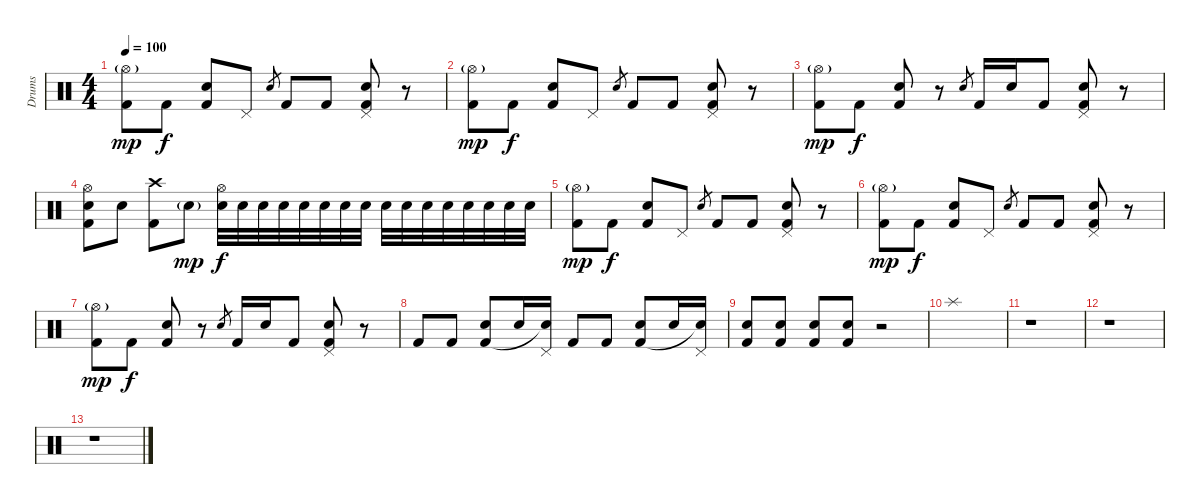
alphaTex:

\track ("Drums" "Drums") {instrument percussion}
\staff {score}
\articulation defaults
\ts (4 4)
\tempo 100
\clef neutral
\ks c
("Hi-Hat (open)"{g} "Kick (hit) 2").8{dy mp} "Kick (hit) 2".8{dy f} ("Snare (hit) 2" "Kick (hit) 2").8 "Pedal Hi-Hat (hit)".8 "Snare (hit) 2".8{gr} "Kick (hit) 2".8 "Kick (hit) 2".8 ("Pedal Hi-Hat (hit)" "Snare (hit) 2" "Kick (hit) 2").8 r.8 |
("Hi-Hat (open)"{g} "Kick (hit) 2").8{dy mp} "Kick (hit) 2".8{dy f} ("Snare (hit) 2" "Kick (hit) 2").8 "Pedal Hi-Hat (hit)".8 "Snare (hit) 2".8{gr} "Kick (hit) 2".8 "Kick (hit) 2".8 ("Pedal Hi-Hat (hit)" "Snare (hit) 2" "Kick (hit) 2").8 r.8 |
("Hi-Hat (open)"{g} "Kick (hit) 2").8{dy mp} "Kick (hit) 2".8{dy f} ("Snare (hit) 2" "Kick (hit) 2").8 r.8 "Snare (hit) 2".8{gr} "Kick (hit) 2".16 "Snare (hit) 2".16 "Kick (hit) 2".8 ("Pedal Hi-Hat (hit)" "Snare (hit) 2" "Kick (hit) 2").8 r.8 |
("Hi-Hat (open)" "Snare (hit) 2" "Kick (hit) 2").8 "Snare (hit) 2".8 ("Crash high (hit)" "Kick (hit) 2").8 "Snare (hit) 2"{g}.8{dy mp} ("Hi-Hat (open)" "Snare (hit) 2").32{dy f} "Snare (hit) 2".32 "Snare (hit) 2".32 "Snare (hit) 2".32 "Snare (hit) 2".32 "Snare (hit) 2".32 "Snare (hit) 2".32 "Snare (hit) 2".32 "Snare (hit) 2".32 "Snare (hit) 2".32 "Snare (hit) 2".32 "Snare (hit) 2".32 "Snare (hit) 2".32 "Snare (hit) 2".32 "Snare (hit) 2".32 "Snare (hit) 2".32 |
("Hi-Hat (open)"{g} "Kick (hit) 2").8{dy mp} "Kick (hit) 2".8{dy f} ("Snare (hit) 2" "Kick (hit) 2").8 "Pedal Hi-Hat (hit)".8 "Snare (hit) 2".8{gr} "Kick (hit) 2".8 "Kick (hit) 2".8 ("Pedal Hi-Hat (hit)" "Snare (hit) 2" "Kick (hit) 2").8 r.8 |
("Hi-Hat (open)"{g} "Kick (hit) 2").8{dy mp} "Kick (hit) 2".8{dy f} ("Snare (hit) 2" "Kick (hit) 2").8 "Pedal Hi-Hat (hit)".8 "Snare (hit) 2".8{gr} "Kick (hit) 2".8 "Kick (hit) 2".8 ("Pedal Hi-Hat (hit)" "Snare (hit) 2" "Kick (hit) 2").8 r.8 |
("Hi-Hat (open)"{g} "Kick (hit) 2").8{dy mp} "Kick (hit) 2".8{dy f} ("Snare (hit) 2" "Kick (hit) 2").8 r.8 "Snare (hit) 2".8{gr} "Kick (hit) 2".16 "Snare (hit) 2".16 "Kick (hit) 2".8 ("Pedal Hi-Hat (hit)" "Snare (hit) 2" "Kick (hit) 2").8 r.8 |
"Kick (hit) 2".8 "Kick (hit) 2".8 ("Snare (hit) 2" "Kick (hit) 2").8 "Snare (hit) 2".16 ("Pedal Hi-Hat (hit)" "Snare (hit)"{t}).16 "Kick (hit) 2".8 "Kick (hit) 2".8 ("Snare (hit) 2" "Kick (hit) 2").8 "Snare (hit) 2".16 ("Pedal Hi-Hat (hit)" "Snare (hit)"{t}).16 |
("Snare (hit) 2" "Kick (hit) 2").8{volume 9} ("Snare (hit) 2" "Kick (hit) 2").8 ("Snare (hit) 2" "Kick (hit) 2").8 ("Snare (hit) 2" "Kick (hit) 2").8 r.2 |
"Splash (hit)".1 |
r.1 |
r.1 |
r.1
